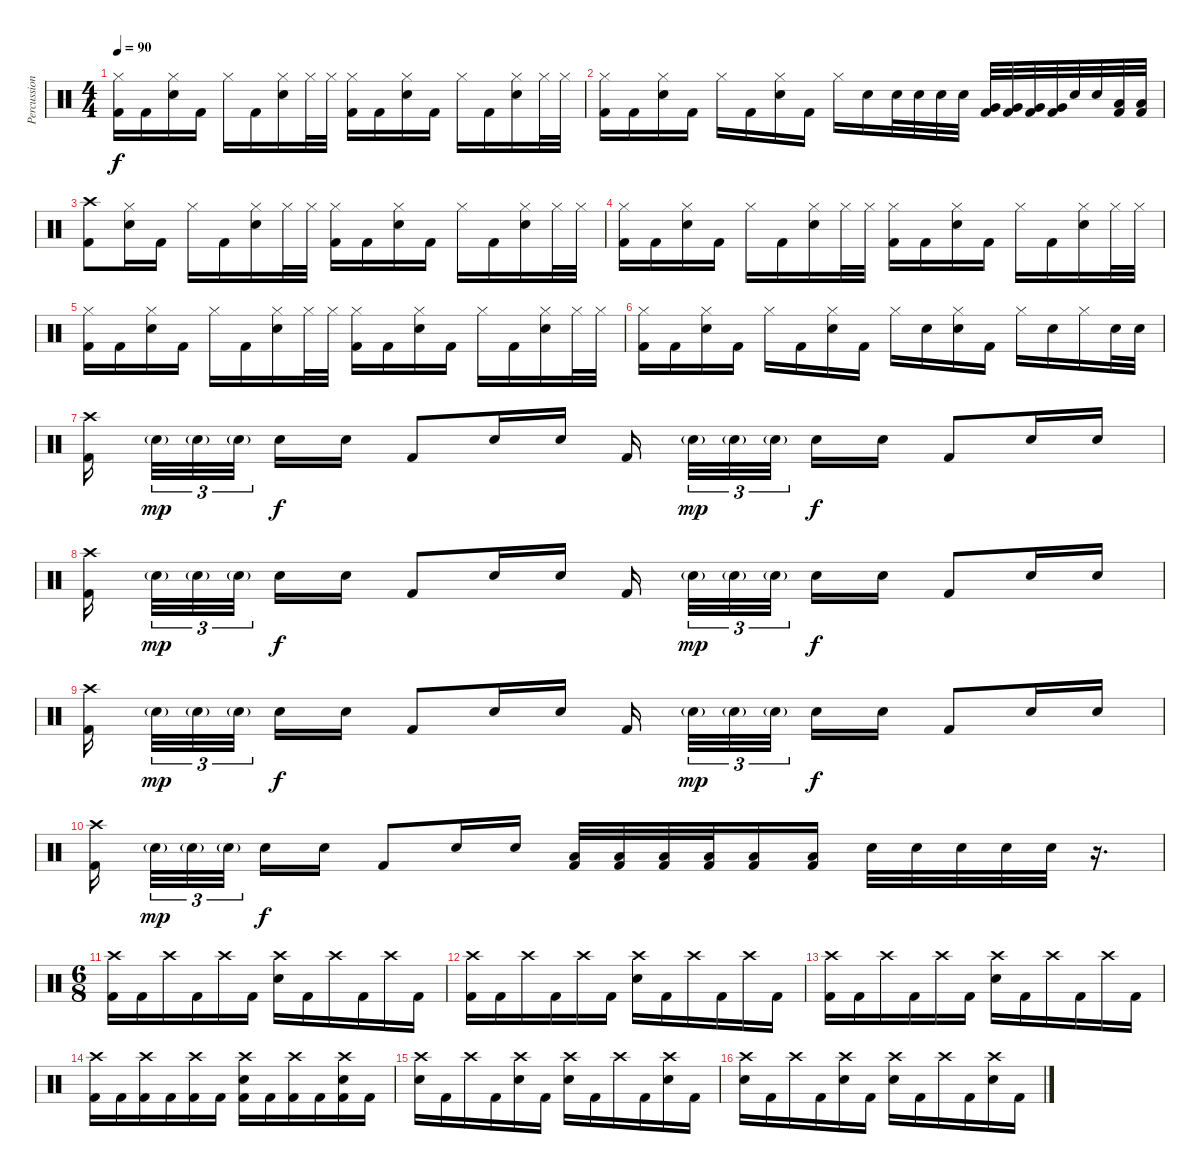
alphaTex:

\track ("Percussion" "Percussion") {instrument percussion}
\staff {score}
\articulation defaults
\ts (4 4)
\tempo 90
\clef neutral
\ks c
("Hi-Hat (closed)" "Kick (hit) 2").16{dy f} "Kick (hit) 2".16 ("Hi-Hat (closed)" "Electric Snare (hit)").16 "Kick (hit) 2".16 "Hi-Hat (closed)".16 "Kick (hit) 2".16 ("Hi-Hat (closed)" "Electric Snare (hit)").16 "Hi-Hat (closed)".32 "Hi-Hat (closed)".32 ("Hi-Hat (closed)" "Kick (hit) 2").16 "Kick (hit) 2".16 ("Hi-Hat (closed)" "Electric Snare (hit)").16 "Kick (hit) 2".16 "Hi-Hat (closed)".16 "Kick (hit) 2".16 ("Hi-Hat (closed)" "Electric Snare (hit)").16 "Hi-Hat (closed)".32 "Hi-Hat (closed)".32 |
("Hi-Hat (closed)" "Kick (hit) 2").16 "Kick (hit) 2".16 ("Hi-Hat (closed)" "Electric Snare (hit)").16 "Kick (hit) 2".16 "Hi-Hat (closed)".16 "Kick (hit) 2".16 ("Hi-Hat (closed)" "Electric Snare (hit)").16 "Kick (hit) 2".16 "Hi-Hat (closed)".16 "Electric Snare (hit)".16 "Electric Snare (hit)".32 "Electric Snare (hit)".32 "Electric Snare (hit)".32 "Electric Snare (hit)".32 ("Very Low Tom (hit)" "Kick (hit) 2").32 ("Very Low Tom (hit)" "Kick (hit) 2").32 ("Very Low Tom (hit)" "Kick (hit) 2").32 ("Very Low Tom (hit)" "Kick (hit) 2").32 "Electric Snare (hit)".32 "Electric Snare (hit)".32 ("Low Floor Tom (hit)" "Kick (hit) 2").32 ("Low Floor Tom (hit)" "Kick (hit) 2").32 |
("Crash high (hit)" "Kick (hit) 2").8 ("Hi-Hat (closed)" "Electric Snare (hit)").16 "Kick (hit) 2".16 "Hi-Hat (closed)".16 "Kick (hit) 2".16 ("Hi-Hat (closed)" "Electric Snare (hit)").16 "Hi-Hat (closed)".32 "Hi-Hat (closed)".32 ("Hi-Hat (closed)" "Kick (hit) 2").16 "Kick (hit) 2".16 ("Hi-Hat (closed)" "Electric Snare (hit)").16 "Kick (hit) 2".16 "Hi-Hat (closed)".16 "Kick (hit) 2".16 ("Hi-Hat (closed)" "Electric Snare (hit)").16 "Hi-Hat (closed)".32 "Hi-Hat (closed)".32 |
("Hi-Hat (closed)" "Kick (hit) 2").16 "Kick (hit) 2".16 ("Hi-Hat (closed)" "Electric Snare (hit)").16 "Kick (hit) 2".16 "Hi-Hat (closed)".16 "Kick (hit) 2".16 ("Hi-Hat (closed)" "Electric Snare (hit)").16 "Hi-Hat (closed)".32 "Hi-Hat (closed)".32 ("Hi-Hat (closed)" "Kick (hit) 2").16 "Kick (hit) 2".16 ("Hi-Hat (closed)" "Electric Snare (hit)").16 "Kick (hit) 2".16 "Hi-Hat (closed)".16 "Kick (hit) 2".16 ("Hi-Hat (closed)" "Electric Snare (hit)").16 "Hi-Hat (closed)".32 "Hi-Hat (closed)".32 |
("Hi-Hat (closed)" "Kick (hit) 2").16 "Kick (hit) 2".16 ("Hi-Hat (closed)" "Electric Snare (hit)").16 "Kick (hit) 2".16 "Hi-Hat (closed)".16 "Kick (hit) 2".16 ("Hi-Hat (closed)" "Electric Snare (hit)").16 "Hi-Hat (closed)".32 "Hi-Hat (closed)".32 ("Hi-Hat (closed)" "Kick (hit) 2").16 "Kick (hit) 2".16 ("Hi-Hat (closed)" "Electric Snare (hit)").16 "Kick (hit) 2".16 "Hi-Hat (closed)".16 "Kick (hit) 2".16 ("Hi-Hat (closed)" "Electric Snare (hit)").16 "Hi-Hat (closed)".32 "Hi-Hat (closed)".32 |
("Hi-Hat (closed)" "Kick (hit) 2").16 "Kick (hit) 2".16 ("Hi-Hat (closed)" "Electric Snare (hit)").16 "Kick (hit) 2".16 "Hi-Hat (closed)".16 "Kick (hit) 2".16 ("Hi-Hat (closed)" "Electric Snare (hit)").16 "Kick (hit) 2".16 "Hi-Hat (closed)".16 "Electric Snare (hit)".16 ("Hi-Hat (closed)" "Electric Snare (hit)").16 "Kick (hit) 2".16 "Hi-Hat (closed)".16 "Electric Snare (hit)".16 "Hi-Hat (closed)".16 "Electric Snare (hit)".32 "Electric Snare (hit)".32 |
("Crash high (hit)" "Kick (hit) 2").16{beam splitsecondary} "Electric Snare (hit)"{g}.32{tu (3 2) dy mp} "Electric Snare (hit)"{g}.32{tu (3 2)} "Electric Snare (hit)"{g}.32{tu (3 2) beam splitsecondary} "Electric Snare (hit)".16{dy f} "Electric Snare (hit)".16 "Kick (hit) 2".8 "Electric Snare (hit)".16 "Electric Snare (hit)".16 "Kick (hit) 2".16{beam splitsecondary} "Electric Snare (hit)"{g}.32{tu (3 2) dy mp} "Electric Snare (hit)"{g}.32{tu (3 2)} "Electric Snare (hit)"{g}.32{tu (3 2) beam splitsecondary} "Electric Snare (hit)".16{dy f} "Electric Snare (hit)".16 "Kick (hit) 2".8 "Electric Snare (hit)".16 "Electric Snare (hit)".16 |
("Crash high (hit)" "Kick (hit) 2").16{beam splitsecondary} "Electric Snare (hit)"{g}.32{tu (3 2) dy mp} "Electric Snare (hit)"{g}.32{tu (3 2)} "Electric Snare (hit)"{g}.32{tu (3 2) beam splitsecondary} "Electric Snare (hit)".16{dy f} "Electric Snare (hit)".16 "Kick (hit) 2".8 "Electric Snare (hit)".16 "Electric Snare (hit)".16 "Kick (hit) 2".16{beam splitsecondary} "Electric Snare (hit)"{g}.32{tu (3 2) dy mp} "Electric Snare (hit)"{g}.32{tu (3 2)} "Electric Snare (hit)"{g}.32{tu (3 2) beam splitsecondary} "Electric Snare (hit)".16{dy f} "Electric Snare (hit)".16 "Kick (hit) 2".8 "Electric Snare (hit)".16 "Electric Snare (hit)".16 |
("Crash high (hit)" "Kick (hit) 2").16{beam splitsecondary} "Electric Snare (hit)"{g}.32{tu (3 2) dy mp} "Electric Snare (hit)"{g}.32{tu (3 2)} "Electric Snare (hit)"{g}.32{tu (3 2) beam splitsecondary} "Electric Snare (hit)".16{dy f} "Electric Snare (hit)".16 "Kick (hit) 2".8 "Electric Snare (hit)".16 "Electric Snare (hit)".16 "Kick (hit) 2".16{beam splitsecondary} "Electric Snare (hit)"{g}.32{tu (3 2) dy mp} "Electric Snare (hit)"{g}.32{tu (3 2)} "Electric Snare (hit)"{g}.32{tu (3 2) beam splitsecondary} "Electric Snare (hit)".16{dy f} "Electric Snare (hit)".16 "Kick (hit) 2".8 "Electric Snare (hit)".16 "Electric Snare (hit)".16 |
("Crash high (hit)" "Kick (hit) 2").16{beam splitsecondary} "Electric Snare (hit)"{g}.32{tu (3 2) dy mp} "Electric Snare (hit)"{g}.32{tu (3 2)} "Electric Snare (hit)"{g}.32{tu (3 2) beam splitsecondary} "Electric Snare (hit)".16{dy f} "Electric Snare (hit)".16 "Kick (hit) 2".8 "Electric Snare (hit)".16 "Electric Snare (hit)".16 ("Low Floor Tom (hit)" "Kick (hit) 2").32 ("Low Floor Tom (hit)" "Kick (hit) 2").32 ("Low Floor Tom (hit)" "Kick (hit) 2").32 ("Low Floor Tom (hit)" "Kick (hit) 2").32 ("Low Floor Tom (hit)" "Kick (hit) 2").16 ("Low Floor Tom (hit)" "Kick (hit) 2").16 "Electric Snare (hit)".32 "Electric Snare (hit)".32 "Electric Snare (hit)".32 "Electric Snare (hit)".32 "Electric Snare (hit)".32 r.16{d} |
\ts (6 8)
("Crash high (hit)" "Kick (hit) 2").16 "Kick (hit) 2".16 "Crash high (hit)".16 "Kick (hit) 2".16 "Crash high (hit)".16 "Kick (hit) 2".16 ("Crash high (hit)" "Electric Snare (hit)").16 "Kick (hit) 2".16 "Crash high (hit)".16 "Kick (hit) 2".16 "Crash high (hit)".16 "Kick (hit) 2".16 |
("Crash high (hit)" "Kick (hit) 2").16 "Kick (hit) 2".16 "Crash high (hit)".16 "Kick (hit) 2".16 "Crash high (hit)".16 "Kick (hit) 2".16 ("Crash high (hit)" "Electric Snare (hit)").16 "Kick (hit) 2".16 "Crash high (hit)".16 "Kick (hit) 2".16 "Crash high (hit)".16 "Kick (hit) 2".16 |
("Crash high (hit)" "Kick (hit) 2").16 "Kick (hit) 2".16 "Crash high (hit)".16 "Kick (hit) 2".16 "Crash high (hit)".16 "Kick (hit) 2".16 ("Crash high (hit)" "Electric Snare (hit)").16 "Kick (hit) 2".16 "Crash high (hit)".16 "Kick (hit) 2".16 "Crash high (hit)".16 "Kick (hit) 2".16 |
("Crash high (hit)" "Kick (hit) 2").16 "Kick (hit) 2".16 ("Crash high (hit)" "Kick (hit) 2").16 "Kick (hit) 2".16 ("Crash high (hit)" "Kick (hit) 2").16 "Kick (hit) 2".16 ("Crash high (hit)" "Electric Snare (hit)" "Kick (hit) 2").16 "Kick (hit) 2".16 ("Crash high (hit)" "Kick (hit) 2").16 "Kick (hit) 2".16 ("Crash high (hit)" "Electric Snare (hit)" "Kick (hit) 2").16 "Kick (hit) 2".16 |
("Crash high (hit)" "Electric Snare (hit)").16 "Kick (hit) 2".16 "Crash high (hit)".16 "Kick (hit) 2".16 ("Crash high (hit)" "Electric Snare (hit)").16 "Kick (hit) 2".16 ("Crash high (hit)" "Electric Snare (hit)").16 "Kick (hit) 2".16 "Crash high (hit)".16 "Kick (hit) 2".16 ("Crash high (hit)" "Electric Snare (hit)").16 "Kick (hit) 2".16 |
("Crash high (hit)" "Electric Snare (hit)").16 "Kick (hit) 2".16 "Crash high (hit)".16 "Kick (hit) 2".16 ("Crash high (hit)" "Electric Snare (hit)").16 "Kick (hit) 2".16 ("Crash high (hit)" "Electric Snare (hit)").16 "Kick (hit) 2".16 "Crash high (hit)".16 "Kick (hit) 2".16 ("Crash high (hit)" "Electric Snare (hit)").16 "Kick (hit) 2".16
